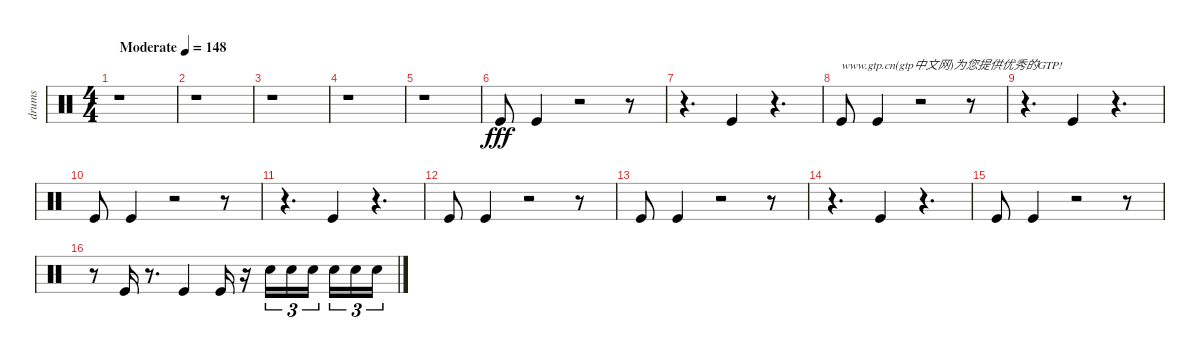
\track ("drums" "drums") {instrument percussion}
\staff {score}
\articulation defaults
\ts (4 4)
\tempo (148 "Moderate")
\clef neutral
\ks c
r.1{dy fff} |
r.1 |
r.1 |
r.1 |
r.1 |
"Kick (hit)".8 "Kick (hit)".4 r.2 r.8 |
r.4{d} "Kick (hit)".4 r.4{d} |
"Kick (hit)".8{txt "www.gtp.cn(gtp中文网)为您提供优秀的GTP!"} "Kick (hit)".4 r.2 r.8 |
r.4{d} "Kick (hit)".4 r.4{d} |
"Kick (hit)".8 "Kick (hit)".4 r.2 r.8 |
r.4{d} "Kick (hit)".4 r.4{d} |
"Kick (hit)".8 "Kick (hit)".4 r.2 r.8 |
"Kick (hit)".8 "Kick (hit)".4 r.2 r.8 |
r.4{d} "Kick (hit)".4 r.4{d} |
"Kick (hit)".8 "Kick (hit)".4 r.2 r.8 |
r.8 "Kick (hit)".16 r.8{d} "Kick (hit)".4 "Kick (hit)".16 r.16 "Electric Snare (hit)".16{tu (3 2)} "Electric Snare (hit)".16{tu (3 2)} "Electric Snare (hit)".16{tu (3 2) beam splitsecondary} "Electric Snare (hit)".16{tu (3 2)} "Electric Snare (hit)".16{tu (3 2)} "Electric Snare (hit)".16{tu (3 2)}
